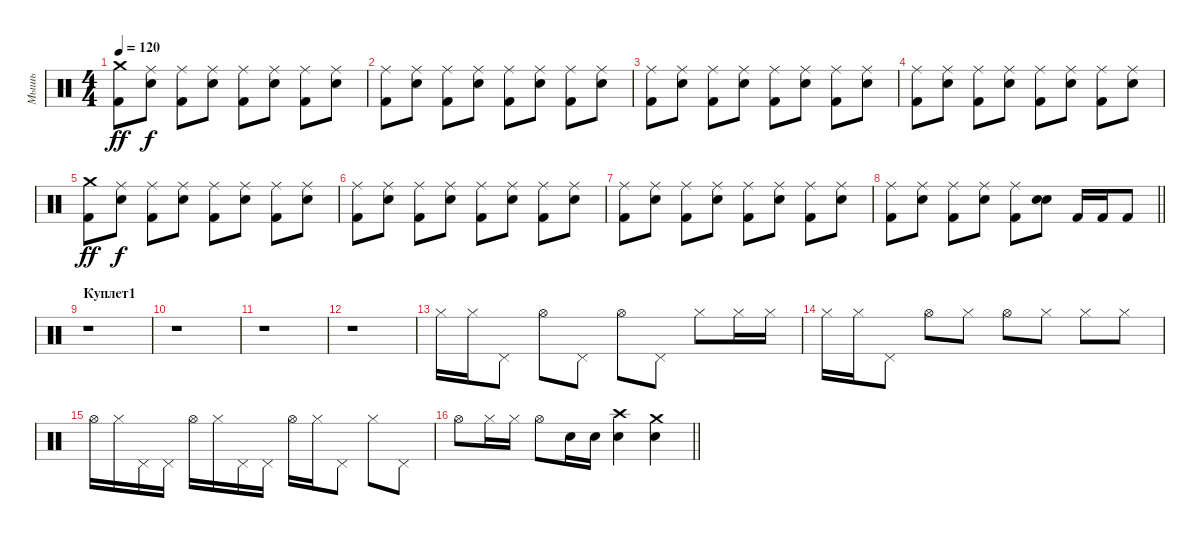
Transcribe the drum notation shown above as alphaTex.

\track ("Мышь" "Мышь") {instrument percussion}
\staff {score}
\articulation defaults
\ts (4 4)
\tempo 120
\clef neutral
\ks c
("Kick (hit) 2" "Crash medium (hit)").8{dy ff} ("Snare (hit) 2" "Ride (middle)").8{dy f} ("Kick (hit) 2" "Ride (middle)").8 ("Snare (hit) 2" "Ride (middle)").8 ("Kick (hit) 2" "Ride (middle)").8 ("Snare (hit) 2" "Ride (middle)").8 ("Kick (hit) 2" "Ride (middle)").8 ("Snare (hit) 2" "Ride (middle)").8 |
("Kick (hit) 2" "Ride (middle)").8 ("Snare (hit) 2" "Ride (middle)").8 ("Kick (hit) 2" "Ride (middle)").8 ("Snare (hit) 2" "Ride (middle)").8 ("Kick (hit) 2" "Ride (middle)").8 ("Snare (hit) 2" "Ride (middle)").8 ("Kick (hit) 2" "Ride (middle)").8 ("Snare (hit) 2" "Ride (middle)").8 |
("Kick (hit) 2" "Ride (middle)").8 ("Snare (hit) 2" "Ride (middle)").8 ("Kick (hit) 2" "Ride (middle)").8 ("Snare (hit) 2" "Ride (middle)").8 ("Kick (hit) 2" "Ride (middle)").8 ("Snare (hit) 2" "Ride (middle)").8 ("Kick (hit) 2" "Ride (middle)").8 ("Snare (hit) 2" "Ride (middle)").8 |
("Kick (hit) 2" "Ride (middle)").8 ("Snare (hit) 2" "Ride (middle)").8 ("Kick (hit) 2" "Ride (middle)").8 ("Snare (hit) 2" "Ride (middle)").8 ("Kick (hit) 2" "Ride (middle)").8 ("Snare (hit) 2" "Ride (middle)").8 ("Kick (hit) 2" "Ride (middle)").8 ("Snare (hit) 2" "Ride (middle)").8 |
("Kick (hit) 2" "Crash medium (hit)").8{dy ff} ("Snare (hit) 2" "Ride (middle)").8{dy f} ("Kick (hit) 2" "Ride (middle)").8 ("Snare (hit) 2" "Ride (middle)").8 ("Kick (hit) 2" "Ride (middle)").8 ("Snare (hit) 2" "Ride (middle)").8 ("Kick (hit) 2" "Ride (middle)").8 ("Snare (hit) 2" "Ride (middle)").8 |
("Kick (hit) 2" "Ride (middle)").8 ("Snare (hit) 2" "Ride (middle)").8 ("Kick (hit) 2" "Ride (middle)").8 ("Snare (hit) 2" "Ride (middle)").8 ("Kick (hit) 2" "Ride (middle)").8 ("Snare (hit) 2" "Ride (middle)").8 ("Kick (hit) 2" "Ride (middle)").8 ("Snare (hit) 2" "Ride (middle)").8 |
("Kick (hit) 2" "Ride (middle)").8 ("Snare (hit) 2" "Ride (middle)").8 ("Kick (hit) 2" "Ride (middle)").8 ("Snare (hit) 2" "Ride (middle)").8 ("Kick (hit) 2" "Ride (middle)").8 ("Snare (hit) 2" "Ride (middle)").8 ("Kick (hit) 2" "Ride (middle)").8 ("Snare (hit) 2" "Ride (middle)").8 |
\barLineRight lightlight
("Kick (hit) 2" "Ride (middle)").8 ("Snare (hit) 2" "Ride (middle)").8 ("Kick (hit) 2" "Ride (middle)").8 ("Snare (hit) 2" "Ride (middle)").8 ("Kick (hit) 2" "Ride (middle)").8 ("Snare (hit) 2" "Snare (hit) 2").8{bd 120} "Kick (hit) 2".16 "Kick (hit) 2".16 "Kick (hit) 2".8 |
\section ("" "Куплет1")
r.1 |
r.1 |
r.1 |
r.1 |
"Hi-Hat (closed)".16 "Hi-Hat (closed)".16 "Pedal Hi-Hat (hit)".8 "Hi-Hat (open)".8 "Pedal Hi-Hat (hit)".8 "Hi-Hat (open)".8 "Pedal Hi-Hat (hit)".8 "Hi-Hat (closed)".8 "Hi-Hat (closed)".16 "Hi-Hat (closed)".16 |
"Hi-Hat (closed)".16 "Hi-Hat (closed)".16 "Pedal Hi-Hat (hit)".8 "Hi-Hat (open)".8 "Hi-Hat (closed)".8 "Hi-Hat (open)".8 "Hi-Hat (closed)".8 "Hi-Hat (closed)".8 "Hi-Hat (closed)".8 |
"Hi-Hat (open)".16 "Hi-Hat (closed)".16 "Pedal Hi-Hat (hit)".16 "Pedal Hi-Hat (hit)".16 "Hi-Hat (open)".16 "Hi-Hat (closed)".16 "Pedal Hi-Hat (hit)".16 "Pedal Hi-Hat (hit)".16 "Hi-Hat (open)".16 "Hi-Hat (closed)".16 "Pedal Hi-Hat (hit)".8 "Hi-Hat (closed)".8 "Pedal Hi-Hat (hit)".8 |
\barLineRight lightlight "Hi-Hat (open)".8 "Hi-Hat (closed)".16 "Hi-Hat (closed)".16 "Hi-Hat (open)".8 "Snare (hit) 2".16 "Snare (hit) 2".16
("Snare (hit) 2" "Crash high (hit)").4 ("Snare (hit) 2" "Crash medium (hit)").4
